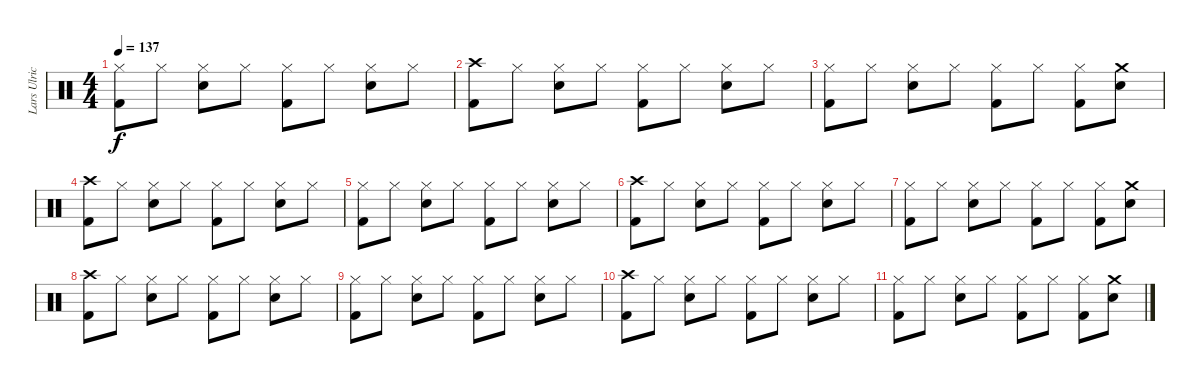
\track ("Lars Ulrich" "Lars Ulric") {instrument percussion}
\staff {score}
\articulation defaults
\ts (4 4)
\tempo 137
\clef neutral
\ks c
("Kick (hit) 2" "Hi-Hat (closed)").8{dy f} "Hi-Hat (closed)".8 ("Snare (hit) 2" "Hi-Hat (closed)").8 "Hi-Hat (closed)".8 ("Kick (hit) 2" "Hi-Hat (closed)").8 "Hi-Hat (closed)".8 ("Snare (hit) 2" "Hi-Hat (closed)").8 "Hi-Hat (closed)".8 |
("Kick (hit) 2" "Crash high (hit)").8 "Hi-Hat (closed)".8 ("Snare (hit) 2" "Hi-Hat (closed)").8 "Hi-Hat (closed)".8 ("Kick (hit) 2" "Hi-Hat (closed)").8 "Hi-Hat (closed)".8 ("Snare (hit) 2" "Hi-Hat (closed)").8 "Hi-Hat (closed)".8 |
("Kick (hit) 2" "Hi-Hat (closed)").8 "Hi-Hat (closed)".8 ("Snare (hit) 2" "Hi-Hat (closed)").8 "Hi-Hat (closed)".8 ("Kick (hit) 2" "Hi-Hat (closed)").8 "Hi-Hat (closed)".8 ("Kick (hit) 2" "Hi-Hat (closed)").8 ("Snare (hit) 2" "Crash medium (hit)").8 |
("Kick (hit) 2" "Crash high (hit)").8 "Hi-Hat (closed)".8 ("Snare (hit) 2" "Hi-Hat (closed)").8 "Hi-Hat (closed)".8 ("Kick (hit) 2" "Hi-Hat (closed)").8 "Hi-Hat (closed)".8 ("Snare (hit) 2" "Hi-Hat (closed)").8 "Hi-Hat (closed)".8 |
("Kick (hit) 2" "Hi-Hat (closed)").8 "Hi-Hat (closed)".8 ("Snare (hit) 2" "Hi-Hat (closed)").8 "Hi-Hat (closed)".8 ("Kick (hit) 2" "Hi-Hat (closed)").8 "Hi-Hat (closed)".8 ("Snare (hit) 2" "Hi-Hat (closed)").8 "Hi-Hat (closed)".8 |
("Kick (hit) 2" "Crash high (hit)").8 "Hi-Hat (closed)".8 ("Snare (hit) 2" "Hi-Hat (closed)").8 "Hi-Hat (closed)".8 ("Kick (hit) 2" "Hi-Hat (closed)").8 "Hi-Hat (closed)".8 ("Snare (hit) 2" "Hi-Hat (closed)").8 "Hi-Hat (closed)".8 |
("Kick (hit) 2" "Hi-Hat (closed)").8 "Hi-Hat (closed)".8 ("Snare (hit) 2" "Hi-Hat (closed)").8 "Hi-Hat (closed)".8 ("Kick (hit) 2" "Hi-Hat (closed)").8 "Hi-Hat (closed)".8 ("Kick (hit) 2" "Hi-Hat (closed)").8 ("Snare (hit) 2" "Crash medium (hit)").8 |
("Kick (hit) 2" "Crash high (hit)").8 "Hi-Hat (closed)".8 ("Snare (hit) 2" "Hi-Hat (closed)").8 "Hi-Hat (closed)".8 ("Kick (hit) 2" "Hi-Hat (closed)").8 "Hi-Hat (closed)".8 ("Snare (hit) 2" "Hi-Hat (closed)").8 "Hi-Hat (closed)".8 |
("Kick (hit) 2" "Hi-Hat (closed)").8 "Hi-Hat (closed)".8 ("Snare (hit) 2" "Hi-Hat (closed)").8 "Hi-Hat (closed)".8 ("Kick (hit) 2" "Hi-Hat (closed)").8 "Hi-Hat (closed)".8 ("Snare (hit) 2" "Hi-Hat (closed)").8 "Hi-Hat (closed)".8 |
("Kick (hit) 2" "Crash high (hit)").8 "Hi-Hat (closed)".8 ("Snare (hit) 2" "Hi-Hat (closed)").8 "Hi-Hat (closed)".8 ("Kick (hit) 2" "Hi-Hat (closed)").8 "Hi-Hat (closed)".8 ("Snare (hit) 2" "Hi-Hat (closed)").8 "Hi-Hat (closed)".8 |
("Kick (hit) 2" "Hi-Hat (closed)").8 "Hi-Hat (closed)".8 ("Snare (hit) 2" "Hi-Hat (closed)").8 "Hi-Hat (closed)".8 ("Kick (hit) 2" "Hi-Hat (closed)").8 "Hi-Hat (closed)".8 ("Kick (hit) 2" "Hi-Hat (closed)").8 ("Snare (hit) 2" "Crash medium (hit)").8
